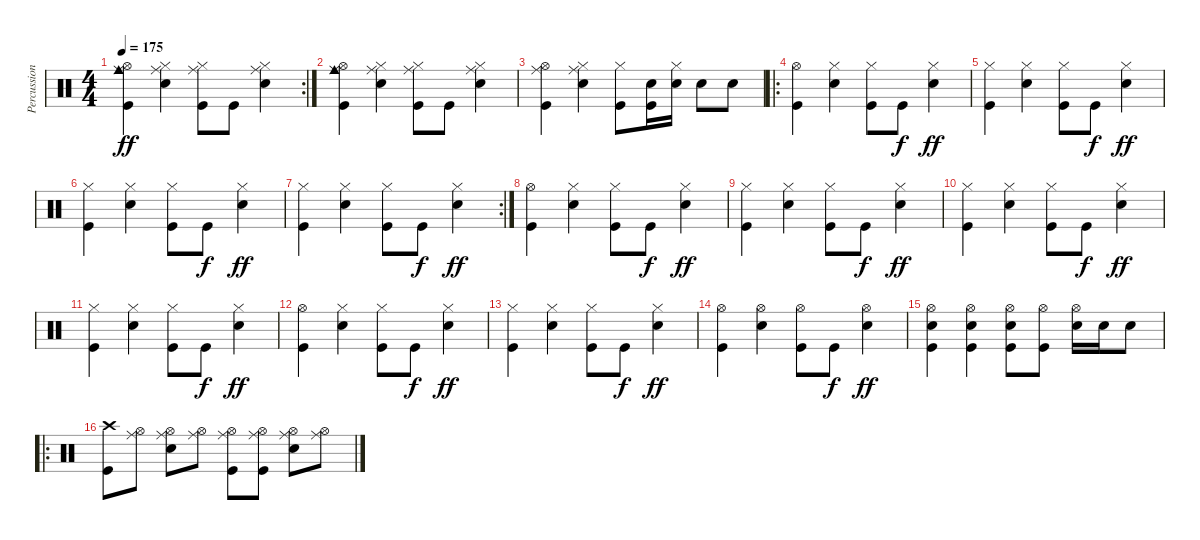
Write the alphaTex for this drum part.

\track ("Percussioni" "Percussion") {instrument percussion}
\staff {score}
\articulation defaults
\rc 2
\ts (4 4)
\tempo 175
\clef neutral
\ks c
("Hi-Hat (open)" "Ride (middle)" "Cowbell medium (hit)" "Kick (hit)").4{dy ff} ("Hi-Hat (closed)" "Ride (middle)" "Electric Snare (hit)").4 ("Hi-Hat (closed)" "Ride (middle)" "Kick (hit)").8 "Kick (hit)".8 ("Hi-Hat (closed)" "Ride (middle)" "Electric Snare (hit)").4 |
("Hi-Hat (open)" "Ride (middle)" "Cowbell medium (hit)" "Kick (hit)").4 ("Hi-Hat (closed)" "Ride (middle)" "Electric Snare (hit)").4 ("Hi-Hat (closed)" "Ride (middle)" "Kick (hit)").8 "Kick (hit)".8 ("Hi-Hat (closed)" "Ride (middle)" "Electric Snare (hit)").4 |
("Hi-Hat (open)" "Ride (middle)" "Kick (hit)").4 ("Hi-Hat (closed)" "Ride (middle)" "Electric Snare (hit)").4 ("Hi-Hat (closed)" "Kick (hit)").8 ("Electric Snare (hit)" "Kick (hit)").16 ("Hi-Hat (closed)" "Electric Snare (hit)").16 "Electric Snare (hit)".8 "Electric Snare (hit)".8 |
\ro
("Hi-Hat (open)" "Kick (hit)").4 ("Hi-Hat (closed)" "Electric Snare (hit)").4 ("Hi-Hat (closed)" "Kick (hit)").8 "Kick (hit)".8{dy f} ("Hi-Hat (closed)" "Electric Snare (hit)").4{dy ff} |
("Hi-Hat (closed)" "Kick (hit)").4 ("Hi-Hat (closed)" "Electric Snare (hit)").4 ("Hi-Hat (closed)" "Kick (hit)").8 "Kick (hit)".8{dy f} ("Hi-Hat (closed)" "Electric Snare (hit)").4{dy ff} |
("Hi-Hat (closed)" "Kick (hit)").4 ("Hi-Hat (closed)" "Electric Snare (hit)").4 ("Hi-Hat (closed)" "Kick (hit)").8 "Kick (hit)".8{dy f} ("Hi-Hat (closed)" "Electric Snare (hit)").4{dy ff} |
\rc 2
("Hi-Hat (closed)" "Kick (hit)").4 ("Hi-Hat (closed)" "Electric Snare (hit)").4 ("Hi-Hat (closed)" "Kick (hit)").8 "Kick (hit)".8{dy f} ("Hi-Hat (closed)" "Electric Snare (hit)").4{dy ff} |
("Hi-Hat (open)" "Kick (hit)").4 ("Hi-Hat (closed)" "Electric Snare (hit)").4 ("Hi-Hat (closed)" "Kick (hit)").8 "Kick (hit)".8{dy f} ("Hi-Hat (closed)" "Electric Snare (hit)").4{dy ff} |
("Hi-Hat (closed)" "Kick (hit)").4 ("Hi-Hat (closed)" "Electric Snare (hit)").4 ("Hi-Hat (closed)" "Kick (hit)").8 "Kick (hit)".8{dy f} ("Hi-Hat (closed)" "Electric Snare (hit)").4{dy ff} |
("Hi-Hat (closed)" "Kick (hit)").4 ("Hi-Hat (closed)" "Electric Snare (hit)").4 ("Hi-Hat (closed)" "Kick (hit)").8 "Kick (hit)".8{dy f} ("Hi-Hat (closed)" "Electric Snare (hit)").4{dy ff} |
("Hi-Hat (closed)" "Kick (hit)").4 ("Hi-Hat (closed)" "Electric Snare (hit)").4 ("Hi-Hat (closed)" "Kick (hit)").8 "Kick (hit)".8{dy f} ("Hi-Hat (closed)" "Electric Snare (hit)").4{dy ff} |
("Hi-Hat (open)" "Kick (hit)").4 ("Hi-Hat (closed)" "Electric Snare (hit)").4 ("Hi-Hat (closed)" "Kick (hit)").8 "Kick (hit)".8{dy f} ("Hi-Hat (closed)" "Electric Snare (hit)").4{dy ff} |
("Hi-Hat (closed)" "Kick (hit)").4 ("Hi-Hat (closed)" "Electric Snare (hit)").4 ("Hi-Hat (closed)" "Kick (hit)").8 "Kick (hit)".8{dy f} ("Hi-Hat (closed)" "Electric Snare (hit)").4{dy ff} |
("Hi-Hat (open)" "Kick (hit)").4 ("Hi-Hat (open)" "Electric Snare (hit)").4 ("Hi-Hat (open)" "Kick (hit)").8 "Kick (hit)".8{dy f} ("Hi-Hat (open)" "Electric Snare (hit)").4{dy ff} |
("Hi-Hat (open)" "Electric Snare (hit)" "Kick (hit)").4 ("Hi-Hat (open)" "Electric Snare (hit)" "Kick (hit)").4 ("Hi-Hat (open)" "Electric Snare (hit)" "Kick (hit)").8 ("Hi-Hat (open)" "Kick (hit)").8 ("Hi-Hat (open)" "Electric Snare (hit)").16 "Electric Snare (hit)".16 "Electric Snare (hit)".8 |
\ro
("Crash high (hit)" "Kick (hit)").8 ("Hi-Hat (open)" "Ride (middle)").8 ("Hi-Hat (open)" "Ride (middle)" "Electric Snare (hit)").8 ("Hi-Hat (open)" "Ride (middle)").8 ("Hi-Hat (open)" "Ride (middle)" "Kick (hit)").8 ("Hi-Hat (open)" "Ride (middle)" "Kick (hit)").8 ("Hi-Hat (open)" "Ride (middle)" "Electric Snare (hit)").8 ("Hi-Hat (open)" "Ride (middle)").8
